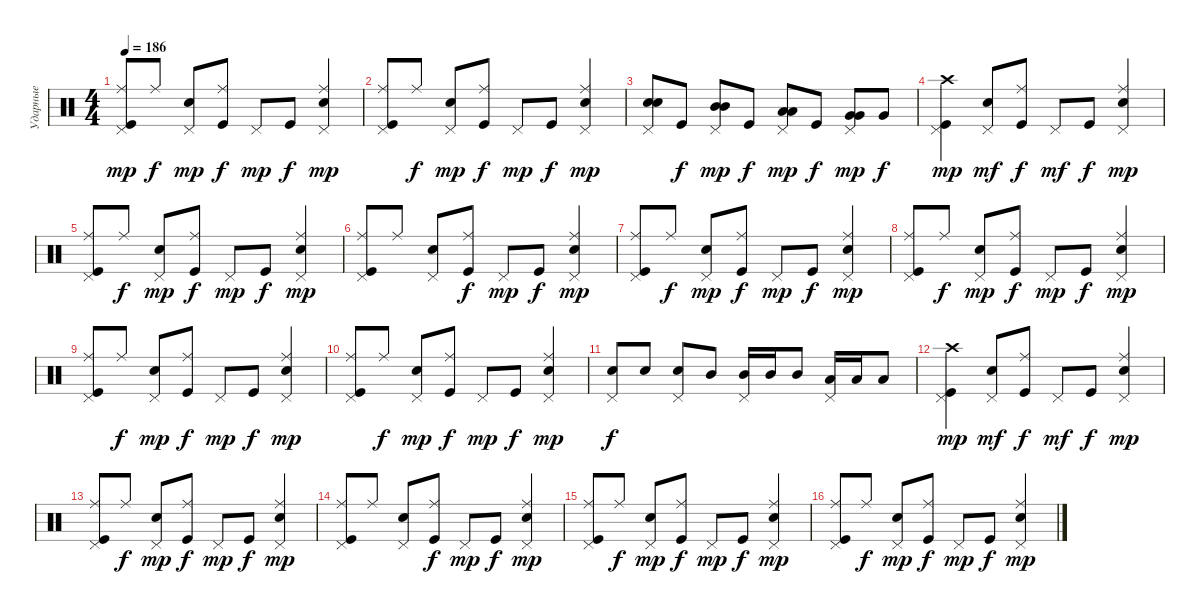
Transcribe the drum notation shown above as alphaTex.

\track ("Ударные" "Ударные") {instrument percussion}
\staff {score}
\articulation defaults
\ts (4 4)
\tempo 186
\clef neutral
\ks aminor
("Pedal Hi-Hat (hit)" "Ride (middle)" "Kick (hit)").8{dy mp} "Ride (middle)".8{dy f} ("Snare (hit) 2" "Pedal Hi-Hat (hit)").8{dy mp} ("Kick (hit)" "Ride (middle)").8{dy f} "Pedal Hi-Hat (hit)".8{dy mp} "Kick (hit)".8{dy f} ("Snare (hit) 2" "Ride (middle)" "Pedal Hi-Hat (hit)").4{dy mp} |
("Pedal Hi-Hat (hit)" "Ride (middle)" "Kick (hit)").8 "Ride (middle)".8{dy f} ("Snare (hit) 2" "Pedal Hi-Hat (hit)").8{dy mp} ("Kick (hit)" "Ride (middle)").8{dy f} "Pedal Hi-Hat (hit)".8{dy mp} "Kick (hit)".8{dy f} ("Snare (hit) 2" "Ride (middle)" "Pedal Hi-Hat (hit)").4{dy mp} |
("Snare (hit) 2" "Snare (hit) 2" "Pedal Hi-Hat (hit)").8{bd 240} "Kick (hit)".8{dy f} ("Pedal Hi-Hat (hit)" "Mid Tom (hit)" "Mid Tom (hit)").8{bd 480 dy mp} "Kick (hit)".8{dy f} ("Low Tom (hit)" "Low Tom (hit)" "Pedal Hi-Hat (hit)").8{bd 480 dy mp} "Kick (hit)".8{dy f} ("Very Low Tom (hit)" "Pedal Hi-Hat (hit)" "Very Low Tom (hit)").8{dy mp} "Very Low Tom (hit)".8{dy f} |
("Kick (hit)" "Crash high (hit)" "Pedal Hi-Hat (hit)").4{dy mp} ("Snare (hit) 2" "Pedal Hi-Hat (hit)").8{dy mf} ("Kick (hit)" "Ride (middle)").8{dy f} "Pedal Hi-Hat (hit)".8{dy mf} "Kick (hit)".8{dy f} ("Snare (hit) 2" "Ride (middle)" "Pedal Hi-Hat (hit)").4{dy mp} |
("Pedal Hi-Hat (hit)" "Ride (middle)" "Kick (hit)").8 "Ride (middle)".8{dy f} ("Snare (hit) 2" "Pedal Hi-Hat (hit)").8{dy mp} ("Kick (hit)" "Ride (middle)").8{dy f} "Pedal Hi-Hat (hit)".8{dy mp} "Kick (hit)".8{dy f} ("Snare (hit) 2" "Ride (middle)" "Pedal Hi-Hat (hit)").4{dy mp} |
("Pedal Hi-Hat (hit)" "Ride (middle)" "Kick (hit)").8 "Ride (middle)".8 ("Snare (hit) 2" "Pedal Hi-Hat (hit)").8 ("Kick (hit)" "Ride (middle)").8{dy f} "Pedal Hi-Hat (hit)".8{dy mp} "Kick (hit)".8{dy f} ("Snare (hit) 2" "Ride (middle)" "Pedal Hi-Hat (hit)").4{dy mp} |
("Pedal Hi-Hat (hit)" "Ride (middle)" "Kick (hit)").8 "Ride (middle)".8{dy f} ("Snare (hit) 2" "Pedal Hi-Hat (hit)").8{dy mp} ("Kick (hit)" "Ride (middle)").8{dy f} "Pedal Hi-Hat (hit)".8{dy mp} "Kick (hit)".8{dy f} ("Snare (hit) 2" "Ride (middle)" "Pedal Hi-Hat (hit)").4{dy mp} |
("Pedal Hi-Hat (hit)" "Ride (middle)" "Kick (hit)").8 "Ride (middle)".8{dy f} ("Snare (hit) 2" "Pedal Hi-Hat (hit)").8{dy mp} ("Kick (hit)" "Ride (middle)").8{dy f} "Pedal Hi-Hat (hit)".8{dy mp} "Kick (hit)".8{dy f} ("Snare (hit) 2" "Ride (middle)" "Pedal Hi-Hat (hit)").4{dy mp} |
("Pedal Hi-Hat (hit)" "Ride (middle)" "Kick (hit)").8 "Ride (middle)".8{dy f} ("Snare (hit) 2" "Pedal Hi-Hat (hit)").8{dy mp} ("Kick (hit)" "Ride (middle)").8{dy f} "Pedal Hi-Hat (hit)".8{dy mp} "Kick (hit)".8{dy f} ("Snare (hit) 2" "Ride (middle)" "Pedal Hi-Hat (hit)").4{dy mp} |
("Pedal Hi-Hat (hit)" "Ride (middle)" "Kick (hit)").8 "Ride (middle)".8{dy f} ("Snare (hit) 2" "Pedal Hi-Hat (hit)").8{dy mp} ("Kick (hit)" "Ride (middle)").8{dy f} "Pedal Hi-Hat (hit)".8{dy mp} "Kick (hit)".8{dy f} ("Snare (hit) 2" "Ride (middle)" "Pedal Hi-Hat (hit)").4{dy mp} |
("Snare (hit) 2" "Pedal Hi-Hat (hit)").8{dy f} "Snare (hit) 2".8 ("Snare (hit) 2" "Pedal Hi-Hat (hit)").8 "Mid Tom (hit)".8 ("Mid Tom (hit)" "Pedal Hi-Hat (hit)").16 "Mid Tom (hit)".16 "Mid Tom (hit)".8 ("Low Tom (hit)" "Pedal Hi-Hat (hit)").16 "Low Tom (hit)".16 "Low Tom (hit)".8 |
("Kick (hit)" "Crash high (hit)" "Pedal Hi-Hat (hit)").4{dy mp} ("Snare (hit) 2" "Pedal Hi-Hat (hit)").8{dy mf} ("Kick (hit)" "Ride (middle)").8{dy f} "Pedal Hi-Hat (hit)".8{dy mf} "Kick (hit)".8{dy f} ("Snare (hit) 2" "Ride (middle)" "Pedal Hi-Hat (hit)").4{dy mp} |
("Pedal Hi-Hat (hit)" "Ride (middle)" "Kick (hit)").8 "Ride (middle)".8{dy f} ("Snare (hit) 2" "Pedal Hi-Hat (hit)").8{dy mp} ("Kick (hit)" "Ride (middle)").8{dy f} "Pedal Hi-Hat (hit)".8{dy mp} "Kick (hit)".8{dy f} ("Snare (hit) 2" "Ride (middle)" "Pedal Hi-Hat (hit)").4{dy mp} |
("Pedal Hi-Hat (hit)" "Ride (middle)" "Kick (hit)").8 "Ride (middle)".8 ("Snare (hit) 2" "Pedal Hi-Hat (hit)").8 ("Kick (hit)" "Ride (middle)").8{dy f} "Pedal Hi-Hat (hit)".8{dy mp} "Kick (hit)".8{dy f} ("Snare (hit) 2" "Ride (middle)" "Pedal Hi-Hat (hit)").4{dy mp} |
("Pedal Hi-Hat (hit)" "Ride (middle)" "Kick (hit)").8 "Ride (middle)".8{dy f} ("Snare (hit) 2" "Pedal Hi-Hat (hit)").8{dy mp} ("Kick (hit)" "Ride (middle)").8{dy f} "Pedal Hi-Hat (hit)".8{dy mp} "Kick (hit)".8{dy f} ("Snare (hit) 2" "Ride (middle)" "Pedal Hi-Hat (hit)").4{dy mp} |
("Pedal Hi-Hat (hit)" "Ride (middle)" "Kick (hit)").8 "Ride (middle)".8{dy f} ("Snare (hit) 2" "Pedal Hi-Hat (hit)").8{dy mp} ("Kick (hit)" "Ride (middle)").8{dy f} "Pedal Hi-Hat (hit)".8{dy mp} "Kick (hit)".8{dy f} ("Snare (hit) 2" "Ride (middle)" "Pedal Hi-Hat (hit)").4{dy mp}
